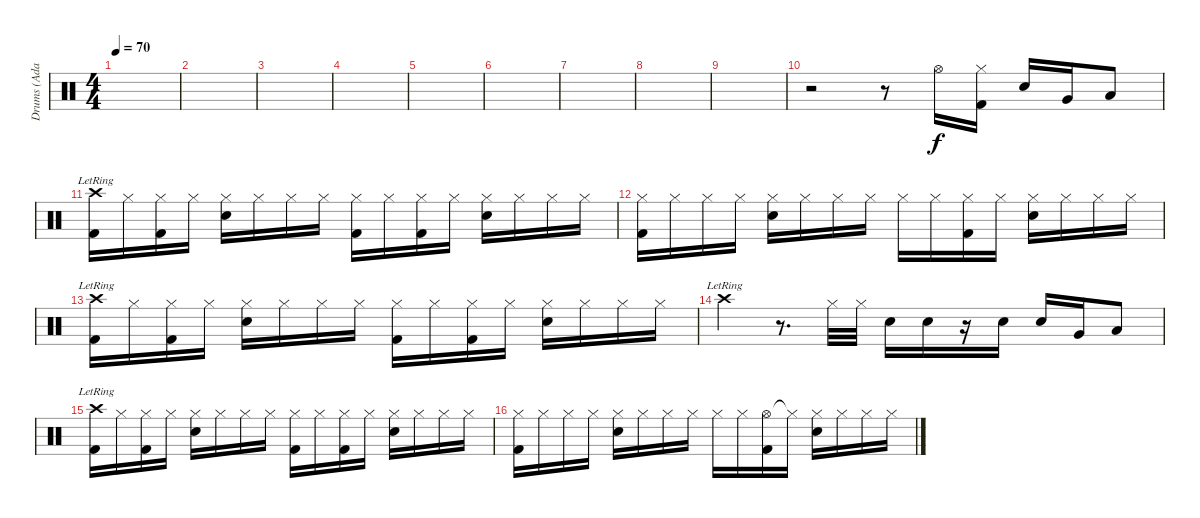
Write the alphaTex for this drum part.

\track ("Drums (Adam) " "Drums (Ada") {instrument percussion}
\staff {score}
\articulation defaults
\ts (4 4)
\tempo 70
\clef neutral
\ks c
|
|
|
|
|
|
|
|
|
r.2 r.8 "Hi-Hat (open)".16{dy f} ("Hi-Hat (closed)" "Kick (hit) 2").16 "Electric Snare (hit)".16 "Very Low Tom (hit)".16 "Low Floor Tom (hit)".8 |
("Crash high (hit)"{lr} "Kick (hit) 2").16 "Hi-Hat (closed)".16 ("Hi-Hat (closed)" "Kick (hit) 2").16 "Hi-Hat (closed)".16 ("Hi-Hat (closed)" "Electric Snare (hit)").16 "Hi-Hat (closed)".16 "Hi-Hat (closed)".16 "Hi-Hat (closed)".16 ("Hi-Hat (closed)" "Kick (hit) 2").16 "Hi-Hat (closed)".16 ("Hi-Hat (closed)" "Kick (hit) 2").16 "Hi-Hat (closed)".16 ("Hi-Hat (closed)" "Electric Snare (hit)").16 "Hi-Hat (closed)".16 "Hi-Hat (closed)".16 "Hi-Hat (closed)".16 |
("Hi-Hat (closed)" "Kick (hit) 2").16 "Hi-Hat (closed)".16 "Hi-Hat (closed)".16 "Hi-Hat (closed)".16 ("Hi-Hat (closed)" "Electric Snare (hit)").16 "Hi-Hat (closed)".16 "Hi-Hat (closed)".16 "Hi-Hat (closed)".16 "Hi-Hat (closed)".16 "Hi-Hat (closed)".16 ("Hi-Hat (closed)" "Kick (hit) 2").16 "Hi-Hat (closed)".16 ("Hi-Hat (closed)" "Electric Snare (hit)").16 "Hi-Hat (closed)".16 "Hi-Hat (closed)".16 "Hi-Hat (closed)".16 |
("Crash high (hit)"{lr} "Kick (hit) 2").16 "Hi-Hat (closed)".16 ("Hi-Hat (closed)" "Kick (hit) 2").16 "Hi-Hat (closed)".16 ("Hi-Hat (closed)" "Electric Snare (hit)").16 "Hi-Hat (closed)".16 "Hi-Hat (closed)".16 "Hi-Hat (closed)".16 ("Hi-Hat (closed)" "Kick (hit) 2").16 "Hi-Hat (closed)".16 ("Hi-Hat (closed)" "Kick (hit) 2").16 "Hi-Hat (closed)".16 ("Hi-Hat (closed)" "Electric Snare (hit)").16 "Hi-Hat (closed)".16 "Hi-Hat (closed)".16 "Hi-Hat (closed)".16 |
"Crash high (hit)"{lr}.4 r.8{d} "Hi-Hat (closed)".32 "Hi-Hat (closed)".32 "Electric Snare (hit)".16 "Electric Snare (hit)".16 r.16 "Electric Snare (hit)".16 "Electric Snare (hit)".16 "Very Low Tom (hit)".16 "Low Floor Tom (hit)".8 |
("Crash high (hit)"{lr} "Kick (hit) 2").16 "Hi-Hat (closed)".16 ("Hi-Hat (closed)" "Kick (hit) 2").16 "Hi-Hat (closed)".16 ("Hi-Hat (closed)" "Electric Snare (hit)").16 "Hi-Hat (closed)".16 "Hi-Hat (closed)".16 "Hi-Hat (closed)".16 ("Hi-Hat (closed)" "Kick (hit) 2").16 "Hi-Hat (closed)".16 ("Hi-Hat (closed)" "Kick (hit) 2").16 "Hi-Hat (closed)".16 ("Hi-Hat (closed)" "Electric Snare (hit)").16 "Hi-Hat (closed)".16 "Hi-Hat (closed)".16 "Hi-Hat (closed)".16 |
("Hi-Hat (closed)" "Kick (hit) 2").16 "Hi-Hat (closed)".16 "Hi-Hat (closed)".16 "Hi-Hat (closed)".16 ("Hi-Hat (closed)" "Electric Snare (hit)").16 "Hi-Hat (closed)".16 "Hi-Hat (closed)".16 "Hi-Hat (closed)".16 "Hi-Hat (closed)".16 "Hi-Hat (closed)".16 ("Hi-Hat (open)" "Kick (hit) 2").16 "Hi-Hat (closed)"{t}.16 ("Hi-Hat (closed)" "Electric Snare (hit)").16 "Hi-Hat (closed)".16 "Hi-Hat (closed)".16 "Hi-Hat (closed)".16
